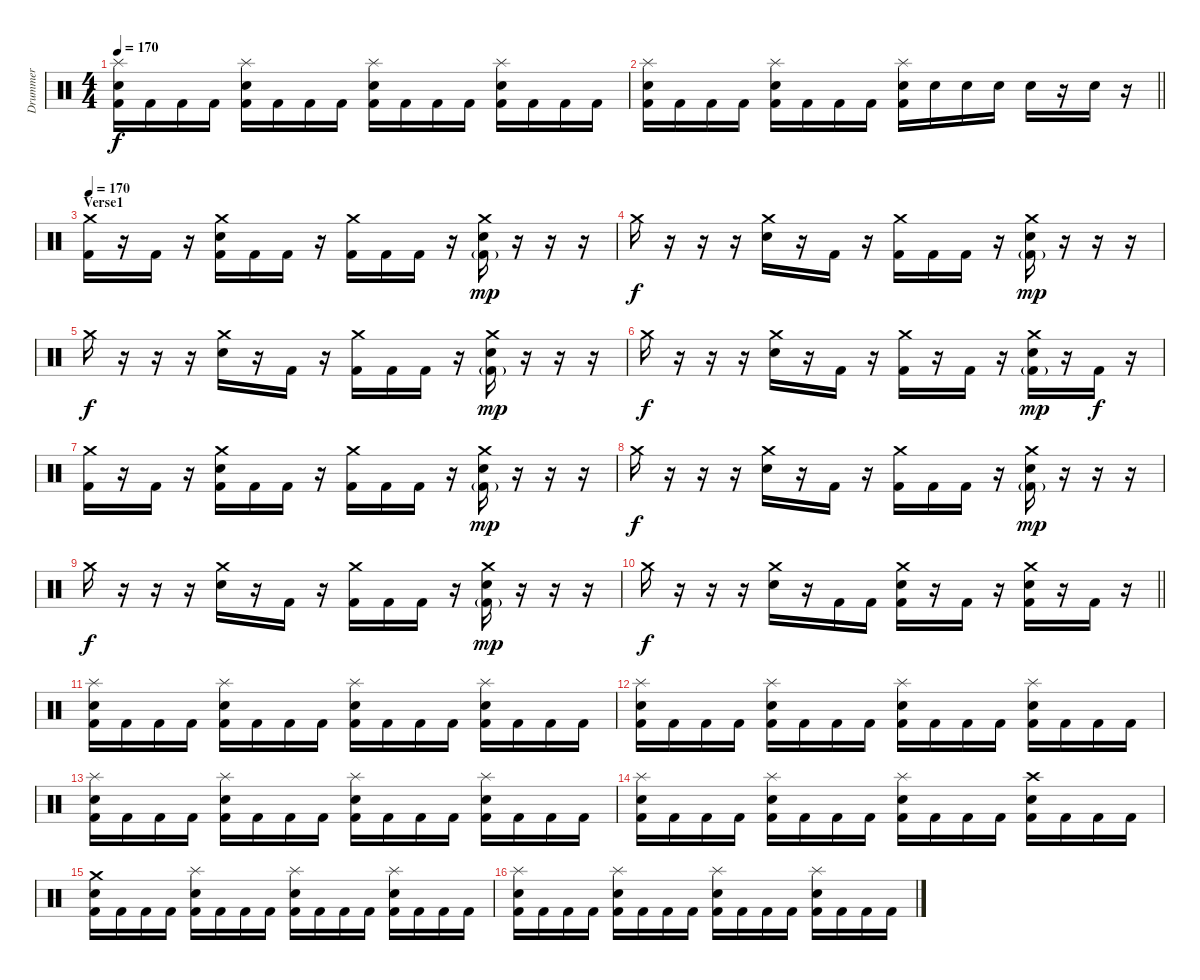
\track ("Drummer" "Drummer") {instrument percussion}
\staff {score}
\articulation defaults
\ts (4 4)
\tempo 170
\clef neutral
\ks c
("Splash (hit)" "Snare (hit) 2" "Kick (hit) 2").16{dy f} "Kick (hit) 2".16 "Kick (hit) 2".16 "Kick (hit) 2".16 ("Splash (hit)" "Snare (hit) 2" "Kick (hit) 2").16 "Kick (hit) 2".16 "Kick (hit) 2".16 "Kick (hit) 2".16 ("Splash (hit)" "Snare (hit) 2" "Kick (hit) 2").16 "Kick (hit) 2".16 "Kick (hit) 2".16 "Kick (hit) 2".16 ("Splash (hit)" "Snare (hit) 2" "Kick (hit) 2").16 "Kick (hit) 2".16 "Kick (hit) 2".16 "Kick (hit) 2".16 |
\barLineRight lightlight
("Splash (hit)" "Snare (hit) 2" "Kick (hit) 2").16 "Kick (hit) 2".16 "Kick (hit) 2".16 "Kick (hit) 2".16 ("Splash (hit)" "Snare (hit) 2" "Kick (hit) 2").16 "Kick (hit) 2".16 "Kick (hit) 2".16 "Kick (hit) 2".16 ("Splash (hit)" "Snare (hit) 2" "Kick (hit) 2").16 "Snare (hit) 2".16 "Snare (hit) 2".16 "Snare (hit) 2".16 "Snare (hit) 2".16 r.16 "Snare (hit) 2".16 r.16 |
\section ("" "Verse1")
\tempo 170
("Crash medium (hit)" "Kick (hit) 2").16 r.16 "Kick (hit) 2".16 r.16 ("Crash medium (hit)" "Snare (hit) 2" "Kick (hit) 2").16 "Kick (hit) 2".16 "Kick (hit) 2".16 r.16 ("Crash medium (hit)" "Kick (hit) 2").16 "Kick (hit) 2".16 "Kick (hit) 2".16 r.16 ("Crash medium (hit)" "Snare (hit) 2" "Kick (hit) 2"{g}).16{dy mp} r.16 r.16 r.16 |
"Crash medium (hit)".16{dy f} r.16 r.16 r.16 ("Crash medium (hit)" "Snare (hit) 2").16 r.16 "Kick (hit) 2".16 r.16 ("Crash medium (hit)" "Kick (hit) 2").16 "Kick (hit) 2".16 "Kick (hit) 2".16 r.16 ("Crash medium (hit)" "Snare (hit) 2" "Kick (hit) 2"{g}).16{dy mp} r.16 r.16 r.16 |
"Crash medium (hit)".16{dy f} r.16 r.16 r.16 ("Crash medium (hit)" "Snare (hit) 2").16 r.16 "Kick (hit) 2".16 r.16 ("Crash medium (hit)" "Kick (hit) 2").16 "Kick (hit) 2".16 "Kick (hit) 2".16 r.16 ("Crash medium (hit)" "Snare (hit) 2" "Kick (hit) 2"{g}).16{dy mp} r.16 r.16 r.16 |
"Crash medium (hit)".16{dy f} r.16 r.16 r.16 ("Crash medium (hit)" "Snare (hit) 2").16 r.16 "Kick (hit) 2".16 r.16 ("Crash medium (hit)" "Kick (hit) 2").16 r.16 "Kick (hit) 2".16 r.16 ("Crash medium (hit)" "Snare (hit) 2" "Kick (hit) 2"{g}).16{dy mp} r.16 "Kick (hit) 2".16{dy f} r.16 |
("Crash medium (hit)" "Kick (hit) 2").16 r.16 "Kick (hit) 2".16 r.16 ("Crash medium (hit)" "Snare (hit) 2" "Kick (hit) 2").16 "Kick (hit) 2".16 "Kick (hit) 2".16 r.16 ("Crash medium (hit)" "Kick (hit) 2").16 "Kick (hit) 2".16 "Kick (hit) 2".16 r.16 ("Crash medium (hit)" "Snare (hit) 2" "Kick (hit) 2"{g}).16{dy mp} r.16 r.16 r.16 |
"Crash medium (hit)".16{dy f} r.16 r.16 r.16 ("Crash medium (hit)" "Snare (hit) 2").16 r.16 "Kick (hit) 2".16 r.16 ("Crash medium (hit)" "Kick (hit) 2").16 "Kick (hit) 2".16 "Kick (hit) 2".16 r.16 ("Crash medium (hit)" "Snare (hit) 2" "Kick (hit) 2"{g}).16{dy mp} r.16 r.16 r.16 |
"Crash medium (hit)".16{dy f} r.16 r.16 r.16 ("Crash medium (hit)" "Snare (hit) 2").16 r.16 "Kick (hit) 2".16 r.16 ("Crash medium (hit)" "Kick (hit) 2").16 "Kick (hit) 2".16 "Kick (hit) 2".16 r.16 ("Crash medium (hit)" "Snare (hit) 2" "Kick (hit) 2"{g}).16{dy mp} r.16 r.16 r.16 |
\barLineRight lightlight "Crash medium (hit)".16{dy f}
r.16 r.16 r.16 ("Crash medium (hit)" "Snare (hit) 2").16 r.16 "Kick (hit) 2".16 "Kick (hit) 2".16 ("Crash medium (hit)" "Snare (hit) 2" "Kick (hit) 2").16 r.16 "Kick (hit) 2".16 r.16 ("Crash medium (hit)" "Snare (hit) 2" "Kick (hit) 2").16 r.16 "Kick (hit) 2".16 r.16 |
("Splash (hit)" "Snare (hit) 2" "Kick (hit) 2").16 "Kick (hit) 2".16 "Kick (hit) 2".16 "Kick (hit) 2".16 ("Splash (hit)" "Snare (hit) 2" "Kick (hit) 2").16 "Kick (hit) 2".16 "Kick (hit) 2".16 "Kick (hit) 2".16 ("Splash (hit)" "Snare (hit) 2" "Kick (hit) 2").16 "Kick (hit) 2".16 "Kick (hit) 2".16 "Kick (hit) 2".16 ("Splash (hit)" "Snare (hit) 2" "Kick (hit) 2").16 "Kick (hit) 2".16 "Kick (hit) 2".16 "Kick (hit) 2".16 |
("Splash (hit)" "Snare (hit) 2" "Kick (hit) 2").16 "Kick (hit) 2".16 "Kick (hit) 2".16 "Kick (hit) 2".16 ("Splash (hit)" "Snare (hit) 2" "Kick (hit) 2").16 "Kick (hit) 2".16 "Kick (hit) 2".16 "Kick (hit) 2".16 ("Splash (hit)" "Snare (hit) 2" "Kick (hit) 2").16 "Kick (hit) 2".16 "Kick (hit) 2".16 "Kick (hit) 2".16 ("Splash (hit)" "Snare (hit) 2" "Kick (hit) 2").16 "Kick (hit) 2".16 "Kick (hit) 2".16 "Kick (hit) 2".16 |
("Splash (hit)" "Snare (hit) 2" "Kick (hit) 2").16 "Kick (hit) 2".16 "Kick (hit) 2".16 "Kick (hit) 2".16 ("Splash (hit)" "Snare (hit) 2" "Kick (hit) 2").16 "Kick (hit) 2".16 "Kick (hit) 2".16 "Kick (hit) 2".16 ("Splash (hit)" "Snare (hit) 2" "Kick (hit) 2").16 "Kick (hit) 2".16 "Kick (hit) 2".16 "Kick (hit) 2".16 ("Splash (hit)" "Snare (hit) 2" "Kick (hit) 2").16 "Kick (hit) 2".16 "Kick (hit) 2".16 "Kick (hit) 2".16 |
("Splash (hit)" "Snare (hit) 2" "Kick (hit) 2").16 "Kick (hit) 2".16 "Kick (hit) 2".16 "Kick (hit) 2".16 ("Splash (hit)" "Snare (hit) 2" "Kick (hit) 2").16 "Kick (hit) 2".16 "Kick (hit) 2".16 "Kick (hit) 2".16 ("Splash (hit)" "Snare (hit) 2" "Kick (hit) 2").16 "Kick (hit) 2".16 "Kick (hit) 2".16 "Kick (hit) 2".16 ("Crash high (hit)" "Snare (hit) 2" "Kick (hit) 2").16 "Kick (hit) 2".16 "Kick (hit) 2".16 "Kick (hit) 2".16 |
("Crash medium (hit)" "Snare (hit) 2" "Kick (hit) 2").16 "Kick (hit) 2".16 "Kick (hit) 2".16 "Kick (hit) 2".16 ("Splash (hit)" "Snare (hit) 2" "Kick (hit) 2").16 "Kick (hit) 2".16 "Kick (hit) 2".16 "Kick (hit) 2".16 ("Splash (hit)" "Snare (hit) 2" "Kick (hit) 2").16 "Kick (hit) 2".16 "Kick (hit) 2".16 "Kick (hit) 2".16 ("Splash (hit)" "Snare (hit) 2" "Kick (hit) 2").16 "Kick (hit) 2".16 "Kick (hit) 2".16 "Kick (hit) 2".16 |
("Splash (hit)" "Snare (hit) 2" "Kick (hit) 2").16 "Kick (hit) 2".16 "Kick (hit) 2".16 "Kick (hit) 2".16 ("Splash (hit)" "Snare (hit) 2" "Kick (hit) 2").16 "Kick (hit) 2".16 "Kick (hit) 2".16 "Kick (hit) 2".16 ("Splash (hit)" "Snare (hit) 2" "Kick (hit) 2").16 "Kick (hit) 2".16 "Kick (hit) 2".16 "Kick (hit) 2".16 ("Splash (hit)" "Snare (hit) 2" "Kick (hit) 2").16 "Kick (hit) 2".16 "Kick (hit) 2".16 "Kick (hit) 2".16
